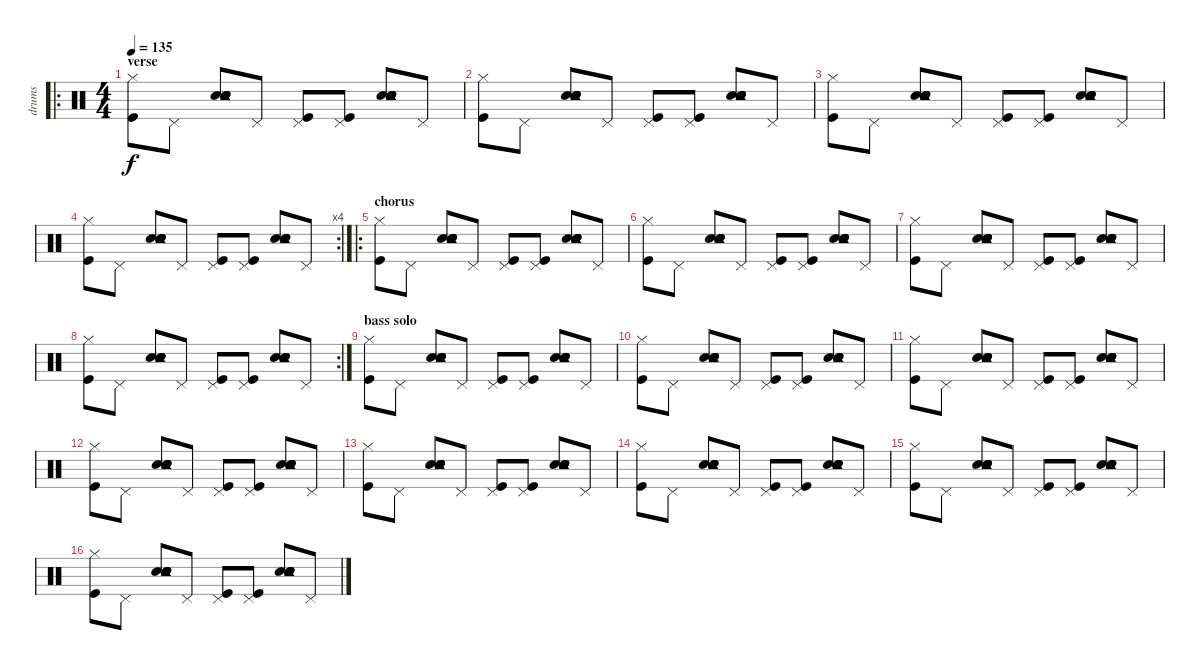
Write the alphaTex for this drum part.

\track ("drums" "drums") {instrument percussion}
\staff {score}
\articulation defaults
\ro
\ts (4 4)
\section ("" "verse")
\tempo 135
\clef neutral
\ks c
("Kick (hit)" "Hi-Hat (closed)").8{dy f} "Pedal Hi-Hat (hit)".8 ("Snare (hit) 2" "Snare (hit) 2" "Electric Snare (hit)" "Electric Snare (hit)" "Tambourine (hit)").8 "Pedal Hi-Hat (hit)".8 ("Kick (hit)" "Pedal Hi-Hat (hit)").8 ("Kick (hit)" "Pedal Hi-Hat (hit)").8 ("Snare (hit) 2" "Snare (hit) 2" "Electric Snare (hit)" "Electric Snare (hit)" "Tambourine (hit)").8 "Pedal Hi-Hat (hit)".8 |
("Kick (hit)" "Hi-Hat (closed)").8 "Pedal Hi-Hat (hit)".8 ("Snare (hit) 2" "Snare (hit) 2" "Electric Snare (hit)" "Electric Snare (hit)" "Tambourine (hit)").8 "Pedal Hi-Hat (hit)".8 ("Kick (hit)" "Pedal Hi-Hat (hit)").8 ("Kick (hit)" "Pedal Hi-Hat (hit)").8 ("Snare (hit) 2" "Snare (hit) 2" "Electric Snare (hit)" "Electric Snare (hit)" "Tambourine (hit)").8 "Pedal Hi-Hat (hit)".8 |
("Kick (hit)" "Hi-Hat (closed)").8 "Pedal Hi-Hat (hit)".8 ("Snare (hit) 2" "Snare (hit) 2" "Electric Snare (hit)" "Electric Snare (hit)" "Tambourine (hit)").8 "Pedal Hi-Hat (hit)".8 ("Kick (hit)" "Pedal Hi-Hat (hit)").8 ("Kick (hit)" "Pedal Hi-Hat (hit)").8 ("Snare (hit) 2" "Snare (hit) 2" "Electric Snare (hit)" "Electric Snare (hit)" "Tambourine (hit)").8 "Pedal Hi-Hat (hit)".8 |
\rc 4
("Kick (hit)" "Hi-Hat (closed)").8 "Pedal Hi-Hat (hit)".8 ("Snare (hit) 2" "Snare (hit) 2" "Electric Snare (hit)" "Electric Snare (hit)" "Tambourine (hit)").8 "Pedal Hi-Hat (hit)".8 ("Kick (hit)" "Pedal Hi-Hat (hit)").8 ("Kick (hit)" "Pedal Hi-Hat (hit)").8 ("Snare (hit) 2" "Snare (hit) 2" "Electric Snare (hit)" "Electric Snare (hit)" "Tambourine (hit)").8 "Pedal Hi-Hat (hit)".8 |
\ro
\section ("" "chorus")
("Kick (hit)" "Hi-Hat (closed)").8 "Pedal Hi-Hat (hit)".8 ("Snare (hit) 2" "Snare (hit) 2" "Electric Snare (hit)" "Electric Snare (hit)" "Tambourine (hit)").8 "Pedal Hi-Hat (hit)".8 ("Kick (hit)" "Pedal Hi-Hat (hit)").8 ("Kick (hit)" "Pedal Hi-Hat (hit)").8 ("Snare (hit) 2" "Snare (hit) 2" "Electric Snare (hit)" "Electric Snare (hit)" "Tambourine (hit)").8 "Pedal Hi-Hat (hit)".8 |
("Kick (hit)" "Hi-Hat (closed)").8 "Pedal Hi-Hat (hit)".8 ("Snare (hit) 2" "Snare (hit) 2" "Electric Snare (hit)" "Electric Snare (hit)" "Tambourine (hit)").8 "Pedal Hi-Hat (hit)".8 ("Kick (hit)" "Pedal Hi-Hat (hit)").8 ("Kick (hit)" "Pedal Hi-Hat (hit)").8 ("Snare (hit) 2" "Snare (hit) 2" "Electric Snare (hit)" "Electric Snare (hit)" "Tambourine (hit)").8 "Pedal Hi-Hat (hit)".8 |
("Kick (hit)" "Hi-Hat (closed)").8 "Pedal Hi-Hat (hit)".8 ("Snare (hit) 2" "Snare (hit) 2" "Electric Snare (hit)" "Electric Snare (hit)" "Tambourine (hit)").8 "Pedal Hi-Hat (hit)".8 ("Kick (hit)" "Pedal Hi-Hat (hit)").8 ("Kick (hit)" "Pedal Hi-Hat (hit)").8 ("Snare (hit) 2" "Snare (hit) 2" "Electric Snare (hit)" "Electric Snare (hit)" "Tambourine (hit)").8 "Pedal Hi-Hat (hit)".8 |
\rc 2
("Kick (hit)" "Hi-Hat (closed)").8 "Pedal Hi-Hat (hit)".8 ("Snare (hit) 2" "Snare (hit) 2" "Electric Snare (hit)" "Electric Snare (hit)" "Tambourine (hit)").8 "Pedal Hi-Hat (hit)".8 ("Kick (hit)" "Pedal Hi-Hat (hit)").8 ("Kick (hit)" "Pedal Hi-Hat (hit)").8 ("Snare (hit) 2" "Snare (hit) 2" "Electric Snare (hit)" "Electric Snare (hit)" "Tambourine (hit)").8 "Pedal Hi-Hat (hit)".8 |
\section ("" "bass solo")
("Kick (hit)" "Hi-Hat (closed)").8 "Pedal Hi-Hat (hit)".8 ("Snare (hit) 2" "Snare (hit) 2" "Electric Snare (hit)" "Electric Snare (hit)" "Tambourine (hit)").8 "Pedal Hi-Hat (hit)".8 ("Kick (hit)" "Pedal Hi-Hat (hit)").8 ("Kick (hit)" "Pedal Hi-Hat (hit)").8 ("Snare (hit) 2" "Snare (hit) 2" "Electric Snare (hit)" "Electric Snare (hit)" "Tambourine (hit)").8 "Pedal Hi-Hat (hit)".8 |
("Kick (hit)" "Hi-Hat (closed)").8 "Pedal Hi-Hat (hit)".8 ("Snare (hit) 2" "Snare (hit) 2" "Electric Snare (hit)" "Electric Snare (hit)" "Tambourine (hit)").8 "Pedal Hi-Hat (hit)".8 ("Kick (hit)" "Pedal Hi-Hat (hit)").8 ("Kick (hit)" "Pedal Hi-Hat (hit)").8 ("Snare (hit) 2" "Snare (hit) 2" "Electric Snare (hit)" "Electric Snare (hit)" "Tambourine (hit)").8 "Pedal Hi-Hat (hit)".8 |
("Kick (hit)" "Hi-Hat (closed)").8 "Pedal Hi-Hat (hit)".8 ("Snare (hit) 2" "Snare (hit) 2" "Electric Snare (hit)" "Electric Snare (hit)" "Tambourine (hit)").8 "Pedal Hi-Hat (hit)".8 ("Kick (hit)" "Pedal Hi-Hat (hit)").8 ("Kick (hit)" "Pedal Hi-Hat (hit)").8 ("Snare (hit) 2" "Snare (hit) 2" "Electric Snare (hit)" "Electric Snare (hit)" "Tambourine (hit)").8 "Pedal Hi-Hat (hit)".8 |
("Kick (hit)" "Hi-Hat (closed)").8 "Pedal Hi-Hat (hit)".8 ("Snare (hit) 2" "Snare (hit) 2" "Electric Snare (hit)" "Electric Snare (hit)" "Tambourine (hit)").8 "Pedal Hi-Hat (hit)".8 ("Kick (hit)" "Pedal Hi-Hat (hit)").8 ("Kick (hit)" "Pedal Hi-Hat (hit)").8 ("Snare (hit) 2" "Snare (hit) 2" "Electric Snare (hit)" "Electric Snare (hit)" "Tambourine (hit)").8 "Pedal Hi-Hat (hit)".8 |
("Kick (hit)" "Hi-Hat (closed)").8 "Pedal Hi-Hat (hit)".8 ("Snare (hit) 2" "Snare (hit) 2" "Electric Snare (hit)" "Electric Snare (hit)" "Tambourine (hit)").8 "Pedal Hi-Hat (hit)".8 ("Kick (hit)" "Pedal Hi-Hat (hit)").8 ("Kick (hit)" "Pedal Hi-Hat (hit)").8 ("Snare (hit) 2" "Snare (hit) 2" "Electric Snare (hit)" "Electric Snare (hit)" "Tambourine (hit)").8 "Pedal Hi-Hat (hit)".8 |
("Kick (hit)" "Hi-Hat (closed)").8 "Pedal Hi-Hat (hit)".8 ("Snare (hit) 2" "Snare (hit) 2" "Electric Snare (hit)" "Electric Snare (hit)" "Tambourine (hit)").8 "Pedal Hi-Hat (hit)".8 ("Kick (hit)" "Pedal Hi-Hat (hit)").8 ("Kick (hit)" "Pedal Hi-Hat (hit)").8 ("Snare (hit) 2" "Snare (hit) 2" "Electric Snare (hit)" "Electric Snare (hit)" "Tambourine (hit)").8 "Pedal Hi-Hat (hit)".8 |
("Kick (hit)" "Hi-Hat (closed)").8 "Pedal Hi-Hat (hit)".8 ("Snare (hit) 2" "Snare (hit) 2" "Electric Snare (hit)" "Electric Snare (hit)" "Tambourine (hit)").8 "Pedal Hi-Hat (hit)".8 ("Kick (hit)" "Pedal Hi-Hat (hit)").8 ("Kick (hit)" "Pedal Hi-Hat (hit)").8 ("Snare (hit) 2" "Snare (hit) 2" "Electric Snare (hit)" "Electric Snare (hit)" "Tambourine (hit)").8 "Pedal Hi-Hat (hit)".8 |
("Kick (hit)" "Hi-Hat (closed)").8 "Pedal Hi-Hat (hit)".8 ("Snare (hit) 2" "Snare (hit) 2" "Electric Snare (hit)" "Electric Snare (hit)" "Tambourine (hit)").8 "Pedal Hi-Hat (hit)".8 ("Kick (hit)" "Pedal Hi-Hat (hit)").8 ("Kick (hit)" "Pedal Hi-Hat (hit)").8 ("Snare (hit) 2" "Snare (hit) 2" "Electric Snare (hit)" "Electric Snare (hit)" "Tambourine (hit)").8 "Pedal Hi-Hat (hit)".8
